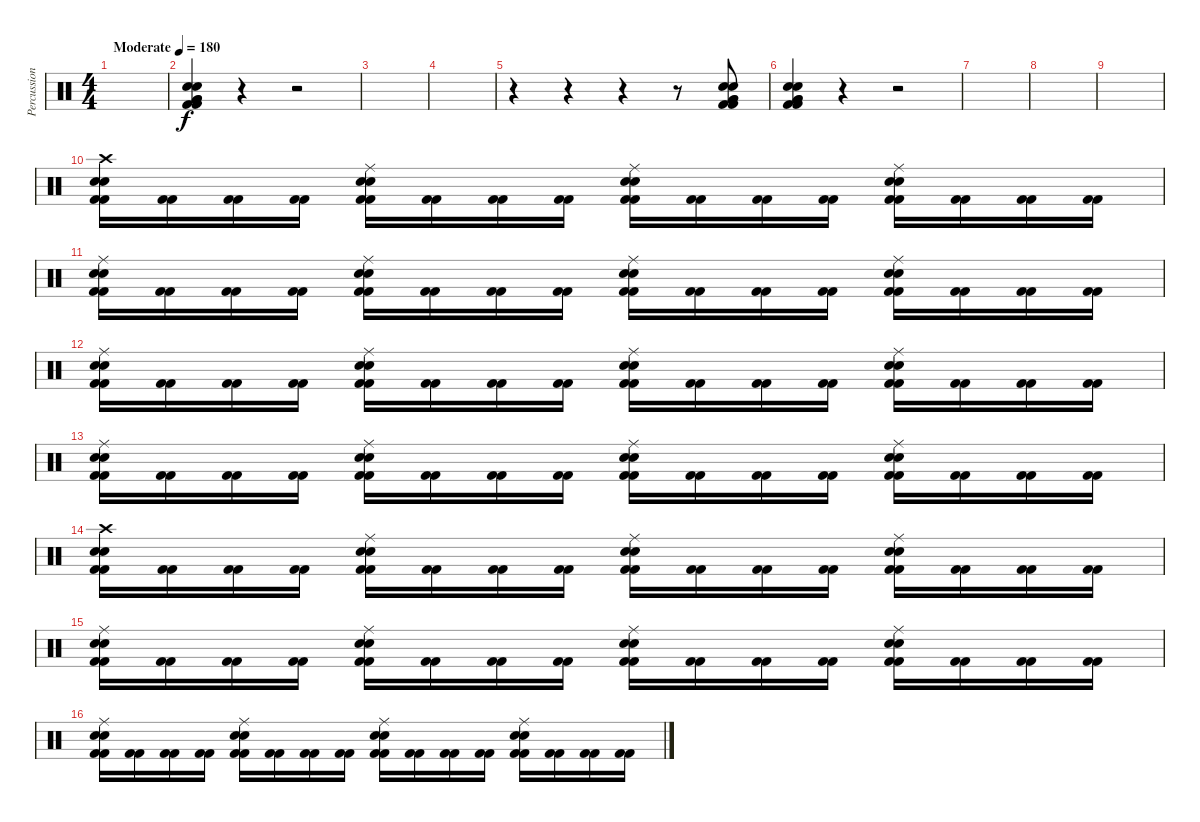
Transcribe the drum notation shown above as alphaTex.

\track ("Percussion" "Percussion") {instrument percussion}
\staff {score}
\articulation defaults
\ts (4 4)
\tempo (180 "Moderate")
\clef neutral
\ks c
|
("Very Low Tom (hit)" "Snare (hit) 2" "Snare (hit) 2" "Kick (hit) 2" "Kick (hit) 2" "Very Low Tom (hit)").4 r.4 r.2 |
|
|
r.4 r.4 r.4 r.8 ("Very Low Tom (hit)" "Snare (hit) 2" "Snare (hit) 2" "Kick (hit) 2" "Kick (hit) 2" "Very Low Tom (hit)").8 |
("Very Low Tom (hit)" "Snare (hit) 2" "Snare (hit) 2" "Kick (hit) 2" "Kick (hit) 2" "Very Low Tom (hit)").4 r.4 r.2 |
|
|
|
("Crash high (hit)" "Snare (hit) 2" "Snare (hit) 2" "Kick (hit) 2" "Kick (hit) 2").16 ("Kick (hit) 2" "Kick (hit) 2").16 ("Kick (hit) 2" "Kick (hit) 2").16 ("Kick (hit) 2" "Kick (hit) 2").16 ("Ride (middle)" "Snare (hit) 2" "Snare (hit) 2" "Kick (hit) 2" "Kick (hit) 2").16 ("Kick (hit) 2" "Kick (hit) 2").16 ("Kick (hit) 2" "Kick (hit) 2").16 ("Kick (hit) 2" "Kick (hit) 2").16 ("Ride (middle)" "Snare (hit) 2" "Snare (hit) 2" "Kick (hit) 2" "Kick (hit) 2").16 ("Kick (hit) 2" "Kick (hit) 2").16 ("Kick (hit) 2" "Kick (hit) 2").16 ("Kick (hit) 2" "Kick (hit) 2").16 ("Ride (middle)" "Snare (hit) 2" "Snare (hit) 2" "Kick (hit) 2" "Kick (hit) 2").16 ("Kick (hit) 2" "Kick (hit) 2").16 ("Kick (hit) 2" "Kick (hit) 2").16 ("Kick (hit) 2" "Kick (hit) 2").16 |
("Ride (middle)" "Snare (hit) 2" "Snare (hit) 2" "Kick (hit) 2" "Kick (hit) 2").16 ("Kick (hit) 2" "Kick (hit) 2").16 ("Kick (hit) 2" "Kick (hit) 2").16 ("Kick (hit) 2" "Kick (hit) 2").16 ("Ride (middle)" "Snare (hit) 2" "Snare (hit) 2" "Kick (hit) 2" "Kick (hit) 2").16 ("Kick (hit) 2" "Kick (hit) 2").16 ("Kick (hit) 2" "Kick (hit) 2").16 ("Kick (hit) 2" "Kick (hit) 2").16 ("Ride (middle)" "Snare (hit) 2" "Snare (hit) 2" "Kick (hit) 2" "Kick (hit) 2").16 ("Kick (hit) 2" "Kick (hit) 2").16 ("Kick (hit) 2" "Kick (hit) 2").16 ("Kick (hit) 2" "Kick (hit) 2").16 ("Ride (middle)" "Snare (hit) 2" "Snare (hit) 2" "Kick (hit) 2" "Kick (hit) 2").16 ("Kick (hit) 2" "Kick (hit) 2").16 ("Kick (hit) 2" "Kick (hit) 2").16 ("Kick (hit) 2" "Kick (hit) 2").16 |
("Ride (middle)" "Snare (hit) 2" "Snare (hit) 2" "Kick (hit) 2" "Kick (hit) 2").16 ("Kick (hit) 2" "Kick (hit) 2").16 ("Kick (hit) 2" "Kick (hit) 2").16 ("Kick (hit) 2" "Kick (hit) 2").16 ("Ride (middle)" "Snare (hit) 2" "Snare (hit) 2" "Kick (hit) 2" "Kick (hit) 2").16 ("Kick (hit) 2" "Kick (hit) 2").16 ("Kick (hit) 2" "Kick (hit) 2").16 ("Kick (hit) 2" "Kick (hit) 2").16 ("Ride (middle)" "Snare (hit) 2" "Snare (hit) 2" "Kick (hit) 2" "Kick (hit) 2").16 ("Kick (hit) 2" "Kick (hit) 2").16 ("Kick (hit) 2" "Kick (hit) 2").16 ("Kick (hit) 2" "Kick (hit) 2").16 ("Ride (middle)" "Snare (hit) 2" "Snare (hit) 2" "Kick (hit) 2" "Kick (hit) 2").16 ("Kick (hit) 2" "Kick (hit) 2").16 ("Kick (hit) 2" "Kick (hit) 2").16 ("Kick (hit) 2" "Kick (hit) 2").16 |
("Ride (middle)" "Snare (hit) 2" "Snare (hit) 2" "Kick (hit) 2" "Kick (hit) 2").16 ("Kick (hit) 2" "Kick (hit) 2").16 ("Kick (hit) 2" "Kick (hit) 2").16 ("Kick (hit) 2" "Kick (hit) 2").16 ("Ride (middle)" "Snare (hit) 2" "Snare (hit) 2" "Kick (hit) 2" "Kick (hit) 2").16 ("Kick (hit) 2" "Kick (hit) 2").16 ("Kick (hit) 2" "Kick (hit) 2").16 ("Kick (hit) 2" "Kick (hit) 2").16 ("Ride (middle)" "Snare (hit) 2" "Snare (hit) 2" "Kick (hit) 2" "Kick (hit) 2").16 ("Kick (hit) 2" "Kick (hit) 2").16 ("Kick (hit) 2" "Kick (hit) 2").16 ("Kick (hit) 2" "Kick (hit) 2").16 ("Ride (middle)" "Snare (hit) 2" "Snare (hit) 2" "Kick (hit) 2" "Kick (hit) 2").16 ("Kick (hit) 2" "Kick (hit) 2").16 ("Kick (hit) 2" "Kick (hit) 2").16 ("Kick (hit) 2" "Kick (hit) 2").16 |
("Crash high (hit)" "Snare (hit) 2" "Snare (hit) 2" "Kick (hit) 2" "Kick (hit) 2").16 ("Kick (hit) 2" "Kick (hit) 2").16 ("Kick (hit) 2" "Kick (hit) 2").16 ("Kick (hit) 2" "Kick (hit) 2").16 ("Ride (middle)" "Snare (hit) 2" "Snare (hit) 2" "Kick (hit) 2" "Kick (hit) 2").16 ("Kick (hit) 2" "Kick (hit) 2").16 ("Kick (hit) 2" "Kick (hit) 2").16 ("Kick (hit) 2" "Kick (hit) 2").16 ("Ride (middle)" "Snare (hit) 2" "Snare (hit) 2" "Kick (hit) 2" "Kick (hit) 2").16 ("Kick (hit) 2" "Kick (hit) 2").16 ("Kick (hit) 2" "Kick (hit) 2").16 ("Kick (hit) 2" "Kick (hit) 2").16 ("Ride (middle)" "Snare (hit) 2" "Snare (hit) 2" "Kick (hit) 2" "Kick (hit) 2").16 ("Kick (hit) 2" "Kick (hit) 2").16 ("Kick (hit) 2" "Kick (hit) 2").16 ("Kick (hit) 2" "Kick (hit) 2").16 |
("Ride (middle)" "Snare (hit) 2" "Snare (hit) 2" "Kick (hit) 2" "Kick (hit) 2").16 ("Kick (hit) 2" "Kick (hit) 2").16 ("Kick (hit) 2" "Kick (hit) 2").16 ("Kick (hit) 2" "Kick (hit) 2").16 ("Ride (middle)" "Snare (hit) 2" "Snare (hit) 2" "Kick (hit) 2" "Kick (hit) 2").16 ("Kick (hit) 2" "Kick (hit) 2").16 ("Kick (hit) 2" "Kick (hit) 2").16 ("Kick (hit) 2" "Kick (hit) 2").16 ("Ride (middle)" "Snare (hit) 2" "Snare (hit) 2" "Kick (hit) 2" "Kick (hit) 2").16 ("Kick (hit) 2" "Kick (hit) 2").16 ("Kick (hit) 2" "Kick (hit) 2").16 ("Kick (hit) 2" "Kick (hit) 2").16 ("Ride (middle)" "Snare (hit) 2" "Snare (hit) 2" "Kick (hit) 2" "Kick (hit) 2").16 ("Kick (hit) 2" "Kick (hit) 2").16 ("Kick (hit) 2" "Kick (hit) 2").16 ("Kick (hit) 2" "Kick (hit) 2").16 |
("Ride (middle)" "Snare (hit) 2" "Snare (hit) 2" "Kick (hit) 2" "Kick (hit) 2").16 ("Kick (hit) 2" "Kick (hit) 2").16 ("Kick (hit) 2" "Kick (hit) 2").16 ("Kick (hit) 2" "Kick (hit) 2").16 ("Ride (middle)" "Snare (hit) 2" "Snare (hit) 2" "Kick (hit) 2" "Kick (hit) 2").16 ("Kick (hit) 2" "Kick (hit) 2").16 ("Kick (hit) 2" "Kick (hit) 2").16 ("Kick (hit) 2" "Kick (hit) 2").16 ("Ride (middle)" "Snare (hit) 2" "Snare (hit) 2" "Kick (hit) 2" "Kick (hit) 2").16 ("Kick (hit) 2" "Kick (hit) 2").16 ("Kick (hit) 2" "Kick (hit) 2").16 ("Kick (hit) 2" "Kick (hit) 2").16 ("Ride (middle)" "Snare (hit) 2" "Snare (hit) 2" "Kick (hit) 2" "Kick (hit) 2").16 ("Kick (hit) 2" "Kick (hit) 2").16 ("Kick (hit) 2" "Kick (hit) 2").16 ("Kick (hit) 2" "Kick (hit) 2").16
